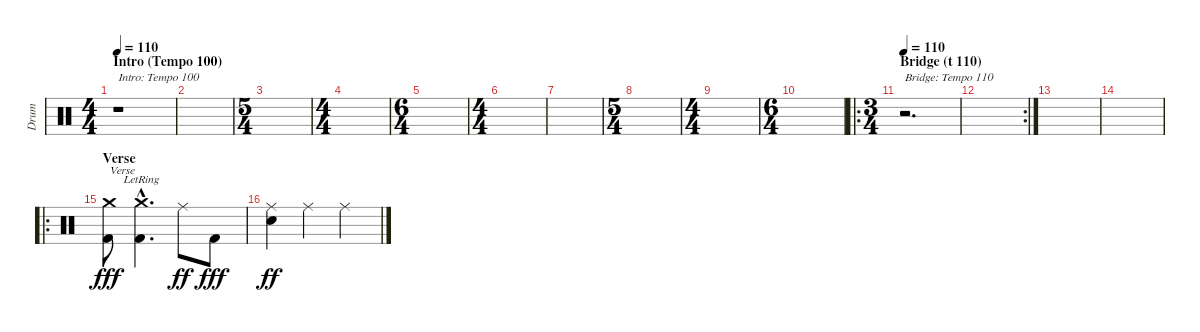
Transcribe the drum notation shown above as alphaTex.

\track ("Drum" "Drum") {instrument percussion}
\staff {score}
\articulation defaults
\ts (4 4)
\section ("" "Intro (Tempo 100)")
\tempo 110
\tempo 100
\tempo 110
\clef neutral
\ks c
r.1{txt "Intro: Tempo 100" dy fff} |
|
\ts (5 4)
|
\ts (4 4)
|
\ts (6 4)
|
\ts (4 4)
|
|
\ts (5 4)
|
\ts (4 4)
|
\ts (6 4)
|
\ro
\ts (3 4)
\section ("" "Bridge (t 110)")
\tempo 110
r.2{d txt "Bridge: Tempo 110"} |
\rc 2
|
|
|
\ro
\section ("" "Verse")
("Crash medium (hit)" "Kick (hit) 2").8{txt "Verse"} ("Crash medium (hit)"{hac lr} "Kick (hit) 2"{hac}).4{d} "Ride (middle)".8{dy ff} "Kick (hit) 2".8{dy fff} |
("Ride (middle)" "Snare (hit) 2").4{dy ff} "Ride (middle)".4 "Ride (middle)".4
